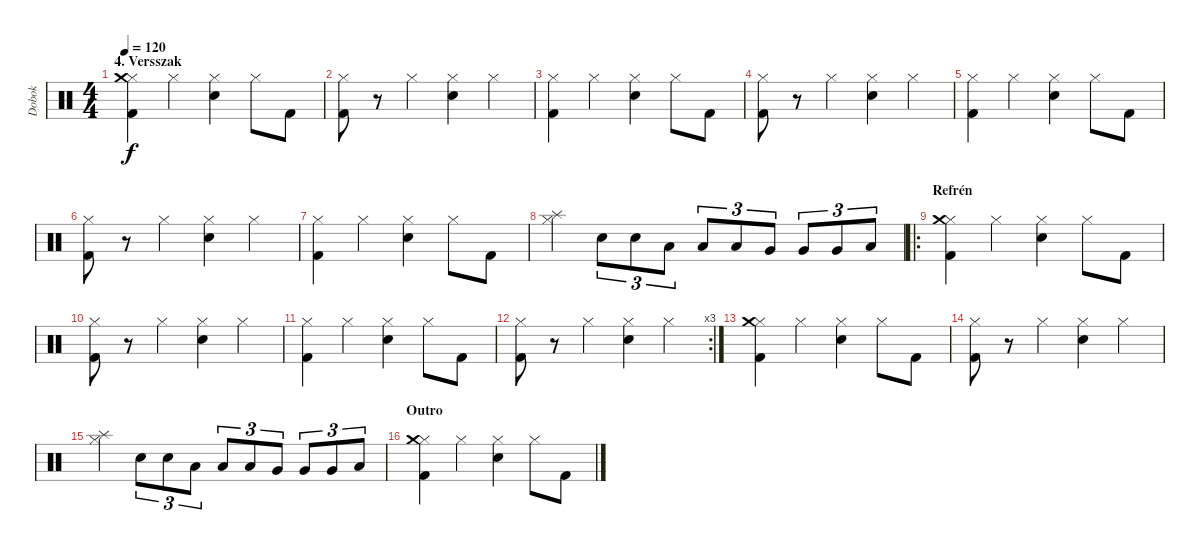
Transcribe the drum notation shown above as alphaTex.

\track ("Dobok" "Dobok") {instrument percussion}
\staff {score}
\articulation defaults
\ts (4 4)
\section ("" "4. Versszak")
\tempo 120
\clef neutral
\ks c
("Hi-Hat (closed)" "Kick (hit) 2" "Crash medium (hit)").4{dy f} "Hi-Hat (closed)".4 ("Hi-Hat (closed)" "Snare (hit) 2").4 "Hi-Hat (closed)".8 "Kick (hit) 2".8 |
("Hi-Hat (closed)" "Kick (hit) 2").8 r.8 "Hi-Hat (closed)".4 ("Hi-Hat (closed)" "Snare (hit) 2").4 "Hi-Hat (closed)".4 |
("Hi-Hat (closed)" "Kick (hit) 2").4 "Hi-Hat (closed)".4 ("Hi-Hat (closed)" "Snare (hit) 2").4 "Hi-Hat (closed)".8 "Kick (hit) 2".8 |
("Hi-Hat (closed)" "Kick (hit) 2").8 r.8 "Hi-Hat (closed)".4 ("Hi-Hat (closed)" "Snare (hit) 2").4 "Hi-Hat (closed)".4 |
("Hi-Hat (closed)" "Kick (hit) 2").4 "Hi-Hat (closed)".4 ("Hi-Hat (closed)" "Snare (hit) 2").4 "Hi-Hat (closed)".8 "Kick (hit) 2".8 |
("Hi-Hat (closed)" "Kick (hit) 2").8 r.8 "Hi-Hat (closed)".4 ("Hi-Hat (closed)" "Snare (hit) 2").4 "Hi-Hat (closed)".4 |
("Hi-Hat (closed)" "Kick (hit) 2").4 "Hi-Hat (closed)".4 ("Hi-Hat (closed)" "Snare (hit) 2").4 "Hi-Hat (closed)".8 "Kick (hit) 2".8 |
("Hi-Hat (closed)" "Splash (hit)").4 "Snare (hit) 2".8{tu (3 2)} "Snare (hit) 2".8{tu (3 2)} "Low Tom (hit)".8{tu (3 2)} "Low Tom (hit)".8{tu (3 2)} "Low Tom (hit)".8{tu (3 2)} "Very Low Tom (hit)".8{tu (3 2)} "Very Low Tom (hit)".8{tu (3 2)} "Very Low Tom (hit)".8{tu (3 2)} "Low Floor Tom (hit)".8{tu (3 2)} |
\ro
\section ("" "Refrén")
("Hi-Hat (closed)" "Kick (hit) 2" "Crash medium (hit)").4 "Hi-Hat (closed)".4 ("Hi-Hat (closed)" "Snare (hit) 2").4 "Hi-Hat (closed)".8 "Kick (hit) 2".8 |
("Hi-Hat (closed)" "Kick (hit) 2").8 r.8 "Hi-Hat (closed)".4 ("Hi-Hat (closed)" "Snare (hit) 2").4 "Hi-Hat (closed)".4 |
("Hi-Hat (closed)" "Kick (hit) 2").4 "Hi-Hat (closed)".4 ("Hi-Hat (closed)" "Snare (hit) 2").4 "Hi-Hat (closed)".8 "Kick (hit) 2".8 |
\rc 3
("Hi-Hat (closed)" "Kick (hit) 2").8 r.8 "Hi-Hat (closed)".4 ("Hi-Hat (closed)" "Snare (hit) 2").4 "Hi-Hat (closed)".4 |
("Hi-Hat (closed)" "Kick (hit) 2" "Crash medium (hit)").4 "Hi-Hat (closed)".4 ("Hi-Hat (closed)" "Snare (hit) 2").4 "Hi-Hat (closed)".8 "Kick (hit) 2".8 |
("Hi-Hat (closed)" "Kick (hit) 2").8 r.8 "Hi-Hat (closed)".4 ("Hi-Hat (closed)" "Snare (hit) 2").4 "Hi-Hat (closed)".4 |
("Hi-Hat (closed)" "Splash (hit)").4 "Snare (hit) 2".8{tu (3 2)} "Snare (hit) 2".8{tu (3 2)} "Low Tom (hit)".8{tu (3 2)} "Low Tom (hit)".8{tu (3 2)} "Low Tom (hit)".8{tu (3 2)} "Very Low Tom (hit)".8{tu (3 2)} "Very Low Tom (hit)".8{tu (3 2)} "Very Low Tom (hit)".8{tu (3 2)} "Low Floor Tom (hit)".8{tu (3 2)} |
\section ("" "Outro")
("Hi-Hat (closed)" "Kick (hit) 2" "Crash medium (hit)").4 "Hi-Hat (closed)".4 ("Hi-Hat (closed)" "Snare (hit) 2").4 "Hi-Hat (closed)".8 "Kick (hit) 2".8
